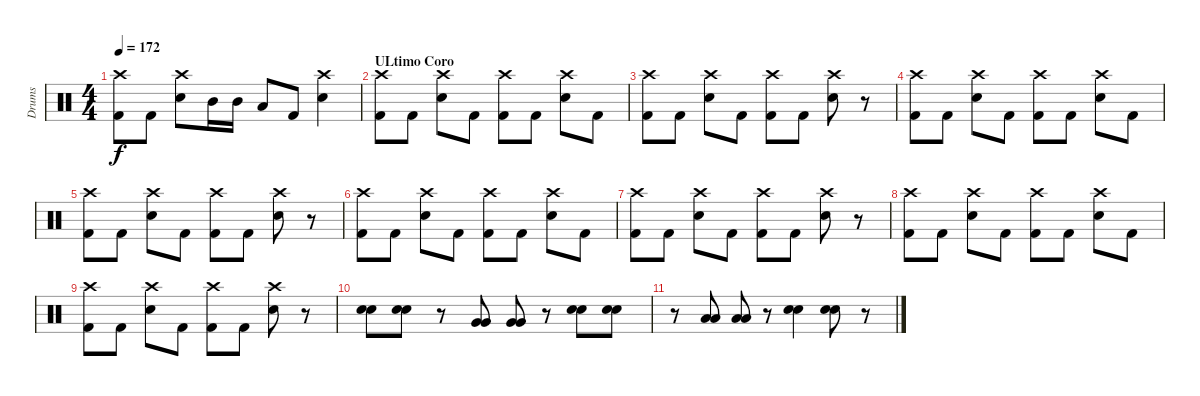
\track ("Drums" "Drums") {instrument percussion}
\staff {score}
\articulation defaults
\ts (4 4)
\tempo 172
\clef neutral
\ks c
("Crash high (hit)" "Kick (hit) 2").8{dy f} "Kick (hit) 2".8 ("Crash high (hit)" "Electric Snare (hit)").8 "Mid Tom (hit)".16 "Mid Tom (hit)".16 "Low Tom (hit)".8 "Kick (hit) 2".8 ("Crash high (hit)" "Electric Snare (hit)").4 |
\section ("" "ULtimo Coro")
("Crash high (hit)" "Kick (hit) 2").8 "Kick (hit) 2".8 ("Crash high (hit)" "Electric Snare (hit)").8 "Kick (hit) 2".8 ("Crash high (hit)" "Kick (hit) 2").8 "Kick (hit) 2".8 ("Crash high (hit)" "Electric Snare (hit)").8 "Kick (hit) 2".8 |
("Crash high (hit)" "Kick (hit) 2").8 "Kick (hit) 2".8 ("Crash high (hit)" "Electric Snare (hit)").8 "Kick (hit) 2".8 ("Crash high (hit)" "Kick (hit) 2").8 "Kick (hit) 2".8 ("Crash high (hit)" "Electric Snare (hit)").8 r.8 |
("Crash high (hit)" "Kick (hit) 2").8 "Kick (hit) 2".8 ("Crash high (hit)" "Electric Snare (hit)").8 "Kick (hit) 2".8 ("Crash high (hit)" "Kick (hit) 2").8 "Kick (hit) 2".8 ("Crash high (hit)" "Electric Snare (hit)").8 "Kick (hit) 2".8 |
("Crash high (hit)" "Kick (hit) 2").8 "Kick (hit) 2".8 ("Crash high (hit)" "Electric Snare (hit)").8 "Kick (hit) 2".8 ("Crash high (hit)" "Kick (hit) 2").8 "Kick (hit) 2".8 ("Crash high (hit)" "Electric Snare (hit)").8 r.8 |
("Crash high (hit)" "Kick (hit) 2").8 "Kick (hit) 2".8 ("Crash high (hit)" "Electric Snare (hit)").8 "Kick (hit) 2".8 ("Crash high (hit)" "Kick (hit) 2").8 "Kick (hit) 2".8 ("Crash high (hit)" "Electric Snare (hit)").8 "Kick (hit) 2".8 |
("Crash high (hit)" "Kick (hit) 2").8 "Kick (hit) 2".8 ("Crash high (hit)" "Electric Snare (hit)").8 "Kick (hit) 2".8 ("Crash high (hit)" "Kick (hit) 2").8 "Kick (hit) 2".8 ("Crash high (hit)" "Electric Snare (hit)").8 r.8 |
("Crash high (hit)" "Kick (hit) 2").8 "Kick (hit) 2".8 ("Crash high (hit)" "Electric Snare (hit)").8 "Kick (hit) 2".8 ("Crash high (hit)" "Kick (hit) 2").8 "Kick (hit) 2".8 ("Crash high (hit)" "Electric Snare (hit)").8 "Kick (hit) 2".8 |
("Crash high (hit)" "Kick (hit) 2").8 "Kick (hit) 2".8 ("Crash high (hit)" "Electric Snare (hit)").8 "Kick (hit) 2".8 ("Crash high (hit)" "Kick (hit) 2").8 "Kick (hit) 2".8 ("Crash high (hit)" "Electric Snare (hit)").8 r.8 |
("Electric Snare (hit)" "Electric Snare (hit)").8 ("Electric Snare (hit)" "Electric Snare (hit)").8 r.8 ("Very Low Tom (hit)" "Very Low Tom (hit)").8 ("Very Low Tom (hit)" "Very Low Tom (hit)").8 r.8 ("Electric Snare (hit)" "Electric Snare (hit)").8 ("Electric Snare (hit)" "Electric Snare (hit)").8 |
r.8 ("Low Tom (hit)" "Low Tom (hit)").8 ("Low Tom (hit)" "Low Tom (hit)").8 r.8 ("Electric Snare (hit)" "Electric Snare (hit)").4 ("Electric Snare (hit)" "Electric Snare (hit)").8 r.8
